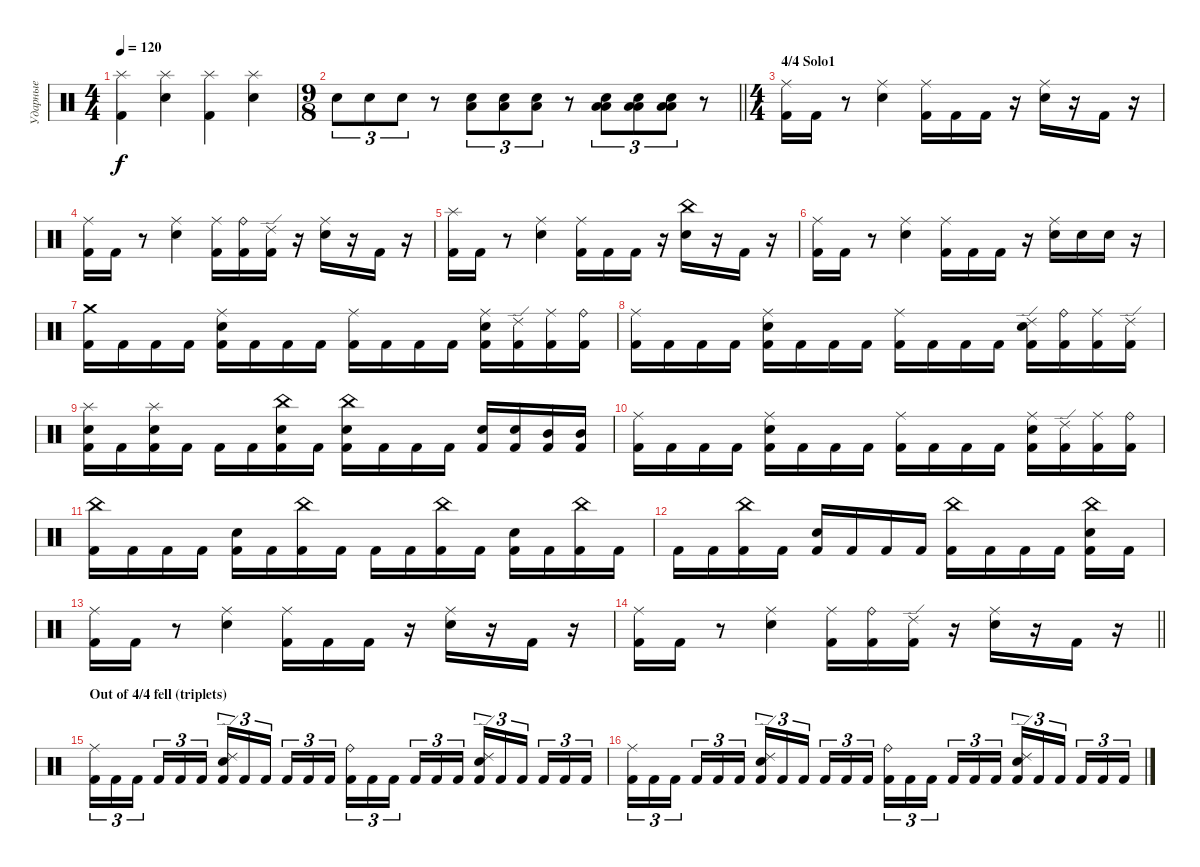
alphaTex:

\track ("Ударные" "Ударные") {instrument percussion}
\staff {score}
\articulation defaults
\ts (4 4)
\tempo 120
\clef neutral
\ks c
("Splash (hit)" "Kick (hit) 2").4{dy f} ("Splash (hit)" "Snare (hit) 2").4 ("Splash (hit)" "Kick (hit) 2").4 ("Splash (hit)" "Snare (hit) 2").4 |
\ts (9 8)
\barLineRight lightlight "Snare (hit) 2".8{tu (3 2)} "Snare (hit) 2".8{tu (3 2)} "Snare (hit) 2".8{tu (3 2)}
r.8 ("Snare (hit) 2" "Low Tom (hit)").8{tu (3 2)} ("Snare (hit) 2" "Low Tom (hit)").8{tu (3 2)} ("Snare (hit) 2" "Low Tom (hit)").8{tu (3 2)} r.8 ("Low Floor Tom (hit)" "Snare (hit) 2" "Low Tom (hit)").8{tu (3 2)} ("Low Floor Tom (hit)" "Snare (hit) 2" "Low Tom (hit)").8{tu (3 2)} ("Low Floor Tom (hit)" "Snare (hit) 2" "Low Tom (hit)").8{tu (3 2)} r.8 |
\ts (4 4)
\section ("" "4/4 Solo1")
("Ride (middle)" "Kick (hit) 2").16 "Kick (hit) 2".16 r.8 ("Ride (middle)" "Snare (hit) 2").4 ("Ride (middle)" "Kick (hit) 2").16 "Kick (hit) 2".16 "Kick (hit) 2".16 r.16 ("Ride (middle)" "Snare (hit) 2").16 r.16 "Kick (hit) 2".16 r.16 |
("Ride (middle)" "Kick (hit) 2").16 "Kick (hit) 2".16 r.8 ("Ride (middle)" "Snare (hit) 2").4 ("Ride (middle)" "Kick (hit) 2").16 ("Ride (bell)" "Kick (hit) 2").16 ("Ride (edge) 2" "Kick (hit) 2").16 r.16 ("Ride (middle)" "Snare (hit) 2").16 r.16 "Kick (hit) 2".16 r.16 |
("Splash (hit)" "Kick (hit) 2").16 "Kick (hit) 2".16 r.8 ("Ride (middle)" "Snare (hit) 2").4 ("Ride (middle)" "Kick (hit) 2").16 "Kick (hit) 2".16 "Kick (hit) 2".16 r.16 ("China (hit)" "Snare (hit) 2").16 r.16 "Kick (hit) 2".16 r.16 |
("Ride (middle)" "Kick (hit) 2").16 "Kick (hit) 2".16 r.8 ("Ride (middle)" "Snare (hit) 2").4 ("Ride (middle)" "Kick (hit) 2").16 "Kick (hit) 2".16 "Kick (hit) 2".16 r.16 ("Ride (middle)" "Snare (hit) 2").16 "Snare (hit) 2".16 "Snare (hit) 2".16 r.16 |
("Crash medium (hit)" "Kick (hit) 2").16 "Kick (hit) 2".16 "Kick (hit) 2".16 "Kick (hit) 2".16 ("Ride (middle)" "Snare (hit) 2" "Kick (hit) 2").16 "Kick (hit) 2".16 "Kick (hit) 2".16 "Kick (hit) 2".16 ("Ride (middle)" "Kick (hit) 2").16 "Kick (hit) 2".16 "Kick (hit) 2".16 "Kick (hit) 2".16 ("Ride (middle)" "Snare (hit) 2" "Kick (hit) 2").16 ("Ride (edge) 2" "Kick (hit) 2").16 ("Ride (middle)" "Kick (hit) 2").16 ("Ride (bell)" "Kick (hit) 2").16 |
("Ride (middle)" "Kick (hit) 2").16 "Kick (hit) 2".16 "Kick (hit) 2".16 "Kick (hit) 2".16 ("Ride (middle)" "Snare (hit) 2" "Kick (hit) 2").16 "Kick (hit) 2".16 "Kick (hit) 2".16 "Kick (hit) 2".16 ("Ride (middle)" "Kick (hit) 2").16 "Kick (hit) 2".16 "Kick (hit) 2".16 "Kick (hit) 2".16 ("Ride (edge) 2" "Snare (hit) 2" "Kick (hit) 2").16 ("Ride (bell)" "Kick (hit) 2").16 ("Ride (middle)" "Kick (hit) 2").16 ("Ride (edge) 2" "Kick (hit) 2").16 |
("Splash (hit)" "Snare (hit) 2" "Kick (hit) 2").16 "Kick (hit) 2".16 ("Splash (hit)" "Snare (hit) 2" "Kick (hit) 2").16 "Kick (hit) 2".16 "Kick (hit) 2".16 "Kick (hit) 2".16 ("China (hit)" "Snare (hit) 2" "Kick (hit) 2").16 "Kick (hit) 2".16 ("China (hit)" "Snare (hit) 2" "Kick (hit) 2").16 "Kick (hit) 2".16 "Kick (hit) 2".16 "Kick (hit) 2".16 ("Snare (hit) 2" "Kick (hit) 2").16 ("Snare (hit) 2" "Kick (hit) 2").16 ("Mid Tom (hit)" "Kick (hit) 2").16 ("Mid Tom (hit)" "Kick (hit) 2").16 |
("Ride (middle)" "Kick (hit) 2").16 "Kick (hit) 2".16 "Kick (hit) 2".16 "Kick (hit) 2".16 ("Ride (middle)" "Snare (hit) 2" "Kick (hit) 2").16 "Kick (hit) 2".16 "Kick (hit) 2".16 "Kick (hit) 2".16 ("Ride (middle)" "Kick (hit) 2").16 "Kick (hit) 2".16 "Kick (hit) 2".16 "Kick (hit) 2".16 ("Ride (middle)" "Snare (hit) 2" "Kick (hit) 2").16 ("Ride (edge) 2" "Kick (hit) 2").16 ("Ride (middle)" "Kick (hit) 2").16 ("Ride (bell)" "Kick (hit) 2").16 |
("China (hit)" "Kick (hit) 2").16 "Kick (hit) 2".16 "Kick (hit) 2".16 "Kick (hit) 2".16 ("Snare (hit) 2" "Kick (hit) 2").16 "Kick (hit) 2".16 ("China (hit)" "Kick (hit) 2").16 "Kick (hit) 2".16 "Kick (hit) 2".16 "Kick (hit) 2".16 ("China (hit)" "Kick (hit) 2").16 "Kick (hit) 2".16 ("Snare (hit) 2" "Kick (hit) 2").16 "Kick (hit) 2".16 ("China (hit)" "Kick (hit) 2").16 "Kick (hit) 2".16 |
"Kick (hit) 2".16 "Kick (hit) 2".16 ("China (hit)" "Kick (hit) 2").16 "Kick (hit) 2".16 ("Snare (hit) 2" "Kick (hit) 2").16 "Kick (hit) 2".16 "Kick (hit) 2".16 "Kick (hit) 2".16 ("China (hit)" "Kick (hit) 2").16 "Kick (hit) 2".16 "Kick (hit) 2".16 "Kick (hit) 2".16 ("China (hit)" "Snare (hit) 2" "Kick (hit) 2").16 "Kick (hit) 2".16 |
("Ride (middle)" "Kick (hit) 2").16 "Kick (hit) 2".16 r.8 ("Ride (middle)" "Snare (hit) 2").4 ("Ride (middle)" "Kick (hit) 2").16 "Kick (hit) 2".16 "Kick (hit) 2".16 r.16 ("Ride (middle)" "Snare (hit) 2").16 r.16 "Kick (hit) 2".16 r.16 |
\barLineRight lightlight
("Ride (middle)" "Kick (hit) 2").16 "Kick (hit) 2".16 r.8 ("Ride (middle)" "Snare (hit) 2").4 ("Ride (middle)" "Kick (hit) 2").16 ("Ride (bell)" "Kick (hit) 2").16 ("Ride (edge) 2" "Kick (hit) 2").16 r.16 ("Ride (middle)" "Snare (hit) 2").16 r.16 "Kick (hit) 2".16 r.16 |
\section ("" "Out of 4/4 fell (triplets)")
("Ride (middle)" "Kick (hit) 2").16{tu (3 2)} "Kick (hit) 2".16{tu (3 2)} "Kick (hit) 2".16{tu (3 2)} "Kick (hit) 2".16{tu (3 2)} "Kick (hit) 2".16{tu (3 2)} "Kick (hit) 2".16{tu (3 2)} ("Ride (edge) 2" "Snare (hit) 2" "Kick (hit) 2").16{tu (3 2)} "Kick (hit) 2".16{tu (3 2)} "Kick (hit) 2".16{tu (3 2)} "Kick (hit) 2".16{tu (3 2)} "Kick (hit) 2".16{tu (3 2)} "Kick (hit) 2".16{tu (3 2)} ("Ride (bell)" "Kick (hit) 2").16{tu (3 2)} "Kick (hit) 2".16{tu (3 2)} "Kick (hit) 2".16{tu (3 2)} "Kick (hit) 2".16{tu (3 2)} "Kick (hit) 2".16{tu (3 2)} "Kick (hit) 2".16{tu (3 2)} ("Ride (edge) 2" "Snare (hit) 2" "Kick (hit) 2").16{tu (3 2)} "Kick (hit) 2".16{tu (3 2)} "Kick (hit) 2".16{tu (3 2)} "Kick (hit) 2".16{tu (3 2)} "Kick (hit) 2".16{tu (3 2)} "Kick (hit) 2".16{tu (3 2)} |
("Ride (middle)" "Kick (hit) 2").16{tu (3 2)} "Kick (hit) 2".16{tu (3 2)} "Kick (hit) 2".16{tu (3 2)} "Kick (hit) 2".16{tu (3 2)} "Kick (hit) 2".16{tu (3 2)} "Kick (hit) 2".16{tu (3 2)} ("Ride (edge) 2" "Snare (hit) 2" "Kick (hit) 2").16{tu (3 2)} "Kick (hit) 2".16{tu (3 2)} "Kick (hit) 2".16{tu (3 2)} "Kick (hit) 2".16{tu (3 2)} "Kick (hit) 2".16{tu (3 2)} "Kick (hit) 2".16{tu (3 2)} ("Ride (bell)" "Kick (hit) 2").16{tu (3 2)} "Kick (hit) 2".16{tu (3 2)} "Kick (hit) 2".16{tu (3 2)} "Kick (hit) 2".16{tu (3 2)} "Kick (hit) 2".16{tu (3 2)} "Kick (hit) 2".16{tu (3 2)} ("Ride (edge) 2" "Snare (hit) 2" "Kick (hit) 2").16{tu (3 2)} "Kick (hit) 2".16{tu (3 2)} "Kick (hit) 2".16{tu (3 2)} "Kick (hit) 2".16{tu (3 2)} "Kick (hit) 2".16{tu (3 2)} "Kick (hit) 2".16{tu (3 2)}
